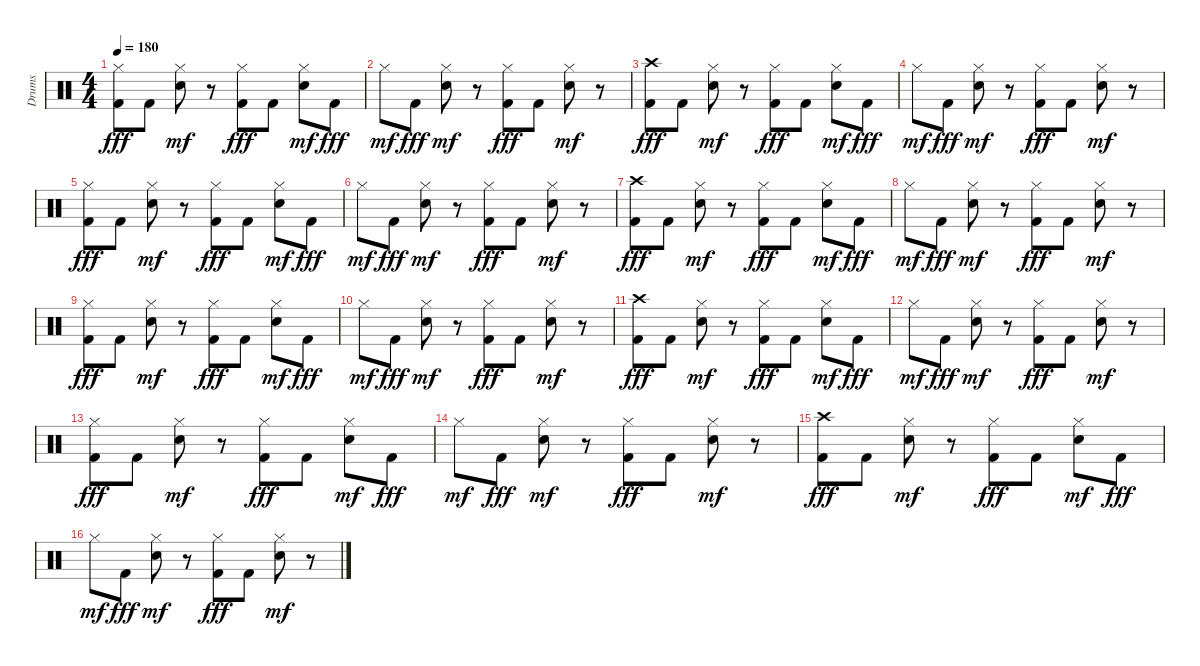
\track ("Drums" "Drums") {instrument percussion}
\staff {score}
\articulation defaults
\ts (4 4)
\tempo 180
\clef neutral
\ks c
("Hi-Hat (closed)" "Kick (hit) 2").8{dy fff} "Kick (hit) 2".8 ("Hi-Hat (closed)" "Electric Snare (hit)").8{dy mf} r.8 ("Hi-Hat (closed)" "Kick (hit) 2").8{dy fff} "Kick (hit) 2".8 ("Hi-Hat (closed)" "Electric Snare (hit)").8{dy mf} "Kick (hit) 2".8{dy fff} |
"Hi-Hat (closed)".8{dy mf} "Kick (hit) 2".8{dy fff} ("Hi-Hat (closed)" "Electric Snare (hit)").8{dy mf} r.8 ("Hi-Hat (closed)" "Kick (hit) 2").8{dy fff} "Kick (hit) 2".8 ("Hi-Hat (closed)" "Electric Snare (hit)").8{dy mf} r.8 |
("Crash high (hit)" "Kick (hit) 2").8{dy fff} "Kick (hit) 2".8 ("Hi-Hat (closed)" "Electric Snare (hit)").8{dy mf} r.8 ("Hi-Hat (closed)" "Kick (hit) 2").8{dy fff} "Kick (hit) 2".8 ("Hi-Hat (closed)" "Electric Snare (hit)").8{dy mf} "Kick (hit) 2".8{dy fff} |
"Hi-Hat (closed)".8{dy mf} "Kick (hit) 2".8{dy fff} ("Hi-Hat (closed)" "Electric Snare (hit)").8{dy mf} r.8 ("Hi-Hat (closed)" "Kick (hit) 2").8{dy fff} "Kick (hit) 2".8 ("Hi-Hat (closed)" "Electric Snare (hit)").8{dy mf} r.8 |
("Hi-Hat (closed)" "Kick (hit) 2").8{dy fff} "Kick (hit) 2".8 ("Hi-Hat (closed)" "Electric Snare (hit)").8{dy mf} r.8 ("Hi-Hat (closed)" "Kick (hit) 2").8{dy fff} "Kick (hit) 2".8 ("Hi-Hat (closed)" "Electric Snare (hit)").8{dy mf} "Kick (hit) 2".8{dy fff} |
"Hi-Hat (closed)".8{dy mf} "Kick (hit) 2".8{dy fff} ("Hi-Hat (closed)" "Electric Snare (hit)").8{dy mf} r.8 ("Hi-Hat (closed)" "Kick (hit) 2").8{dy fff} "Kick (hit) 2".8 ("Hi-Hat (closed)" "Electric Snare (hit)").8{dy mf} r.8 |
("Crash high (hit)" "Kick (hit) 2").8{dy fff} "Kick (hit) 2".8 ("Hi-Hat (closed)" "Electric Snare (hit)").8{dy mf} r.8 ("Hi-Hat (closed)" "Kick (hit) 2").8{dy fff} "Kick (hit) 2".8 ("Hi-Hat (closed)" "Electric Snare (hit)").8{dy mf} "Kick (hit) 2".8{dy fff} |
"Hi-Hat (closed)".8{dy mf} "Kick (hit) 2".8{dy fff} ("Hi-Hat (closed)" "Electric Snare (hit)").8{dy mf} r.8 ("Hi-Hat (closed)" "Kick (hit) 2").8{dy fff} "Kick (hit) 2".8 ("Hi-Hat (closed)" "Electric Snare (hit)").8{dy mf} r.8 |
("Hi-Hat (closed)" "Kick (hit) 2").8{dy fff} "Kick (hit) 2".8 ("Hi-Hat (closed)" "Electric Snare (hit)").8{dy mf} r.8 ("Hi-Hat (closed)" "Kick (hit) 2").8{dy fff} "Kick (hit) 2".8 ("Hi-Hat (closed)" "Electric Snare (hit)").8{dy mf} "Kick (hit) 2".8{dy fff} |
"Hi-Hat (closed)".8{dy mf} "Kick (hit) 2".8{dy fff} ("Hi-Hat (closed)" "Electric Snare (hit)").8{dy mf} r.8 ("Hi-Hat (closed)" "Kick (hit) 2").8{dy fff} "Kick (hit) 2".8 ("Hi-Hat (closed)" "Electric Snare (hit)").8{dy mf} r.8 |
("Crash high (hit)" "Kick (hit) 2").8{dy fff} "Kick (hit) 2".8 ("Hi-Hat (closed)" "Electric Snare (hit)").8{dy mf} r.8 ("Hi-Hat (closed)" "Kick (hit) 2").8{dy fff} "Kick (hit) 2".8 ("Hi-Hat (closed)" "Electric Snare (hit)").8{dy mf} "Kick (hit) 2".8{dy fff} |
"Hi-Hat (closed)".8{dy mf} "Kick (hit) 2".8{dy fff} ("Hi-Hat (closed)" "Electric Snare (hit)").8{dy mf} r.8 ("Hi-Hat (closed)" "Kick (hit) 2").8{dy fff} "Kick (hit) 2".8 ("Hi-Hat (closed)" "Electric Snare (hit)").8{dy mf} r.8 |
("Hi-Hat (closed)" "Kick (hit) 2").8{dy fff} "Kick (hit) 2".8 ("Hi-Hat (closed)" "Electric Snare (hit)").8{dy mf} r.8 ("Hi-Hat (closed)" "Kick (hit) 2").8{dy fff} "Kick (hit) 2".8 ("Hi-Hat (closed)" "Electric Snare (hit)").8{dy mf} "Kick (hit) 2".8{dy fff} |
"Hi-Hat (closed)".8{dy mf} "Kick (hit) 2".8{dy fff} ("Hi-Hat (closed)" "Electric Snare (hit)").8{dy mf} r.8 ("Hi-Hat (closed)" "Kick (hit) 2").8{dy fff} "Kick (hit) 2".8 ("Hi-Hat (closed)" "Electric Snare (hit)").8{dy mf} r.8 |
("Crash high (hit)" "Kick (hit) 2").8{dy fff} "Kick (hit) 2".8 ("Hi-Hat (closed)" "Electric Snare (hit)").8{dy mf} r.8 ("Hi-Hat (closed)" "Kick (hit) 2").8{dy fff} "Kick (hit) 2".8 ("Hi-Hat (closed)" "Electric Snare (hit)").8{dy mf} "Kick (hit) 2".8{dy fff} |
"Hi-Hat (closed)".8{dy mf} "Kick (hit) 2".8{dy fff} ("Hi-Hat (closed)" "Electric Snare (hit)").8{dy mf} r.8 ("Hi-Hat (closed)" "Kick (hit) 2").8{dy fff} "Kick (hit) 2".8 ("Hi-Hat (closed)" "Electric Snare (hit)").8{dy mf} r.8
